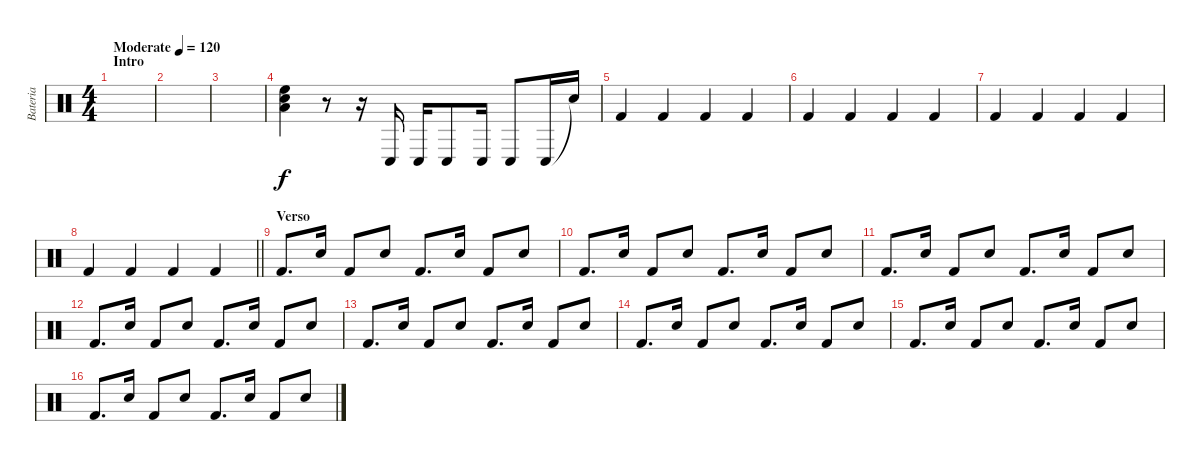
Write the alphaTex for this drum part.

\track ("Bateria" "Bateria") {instrument percussion}
\staff {score}
\articulation defaults
\ts (4 4)
\section ("" "Intro")
\tempo (120 "Moderate")
\clef neutral
\ks c
|
|
|
("Snare (hit)" "Low Tom (hit)" "High Floor Tom (hit)").4 r.8 r.16 "Conga low (hit)".16 "Conga low (hit)".16 "Conga low (hit)".8 "Conga low (hit)".16 "Conga low (hit)".8 "Conga low (hit)".16 "Snare (hit)"{t}.16 |
"Kick (hit) 2".4 "Kick (hit) 2".4 "Kick (hit) 2".4 "Kick (hit) 2".4 |
"Kick (hit) 2".4 "Kick (hit) 2".4 "Kick (hit) 2".4 "Kick (hit) 2".4 |
"Kick (hit) 2".4 "Kick (hit) 2".4 "Kick (hit) 2".4 "Kick (hit) 2".4 |
\barLineRight lightlight "Kick (hit) 2".4 "Kick (hit) 2".4 "Kick (hit) 2".4 "Kick (hit) 2".4
|
\section ("" "Verso")
"Kick (hit) 2".8{d} "Snare (hit) 2".16 "Kick (hit) 2".8 "Snare (hit) 2".8 "Kick (hit) 2".8{d} "Snare (hit) 2".16 "Kick (hit) 2".8 "Snare (hit) 2".8 |
"Kick (hit) 2".8{d} "Snare (hit) 2".16 "Kick (hit) 2".8 "Snare (hit) 2".8 "Kick (hit) 2".8{d} "Snare (hit) 2".16 "Kick (hit) 2".8 "Snare (hit) 2".8 |
"Kick (hit) 2".8{d} "Snare (hit) 2".16 "Kick (hit) 2".8 "Snare (hit) 2".8 "Kick (hit) 2".8{d} "Snare (hit) 2".16 "Kick (hit) 2".8 "Snare (hit) 2".8 |
"Kick (hit) 2".8{d} "Snare (hit) 2".16 "Kick (hit) 2".8 "Snare (hit) 2".8 "Kick (hit) 2".8{d} "Snare (hit) 2".16 "Kick (hit) 2".8 "Snare (hit) 2".8 |
"Kick (hit) 2".8{d} "Snare (hit) 2".16 "Kick (hit) 2".8 "Snare (hit) 2".8 "Kick (hit) 2".8{d} "Snare (hit) 2".16 "Kick (hit) 2".8 "Snare (hit) 2".8 |
"Kick (hit) 2".8{d} "Snare (hit) 2".16 "Kick (hit) 2".8 "Snare (hit) 2".8 "Kick (hit) 2".8{d} "Snare (hit) 2".16 "Kick (hit) 2".8 "Snare (hit) 2".8 |
"Kick (hit) 2".8{d} "Snare (hit) 2".16 "Kick (hit) 2".8 "Snare (hit) 2".8 "Kick (hit) 2".8{d} "Snare (hit) 2".16 "Kick (hit) 2".8 "Snare (hit) 2".8 |
"Kick (hit) 2".8{d} "Snare (hit) 2".16 "Kick (hit) 2".8 "Snare (hit) 2".8 "Kick (hit) 2".8{d} "Snare (hit) 2".16 "Kick (hit) 2".8 "Snare (hit) 2".8
